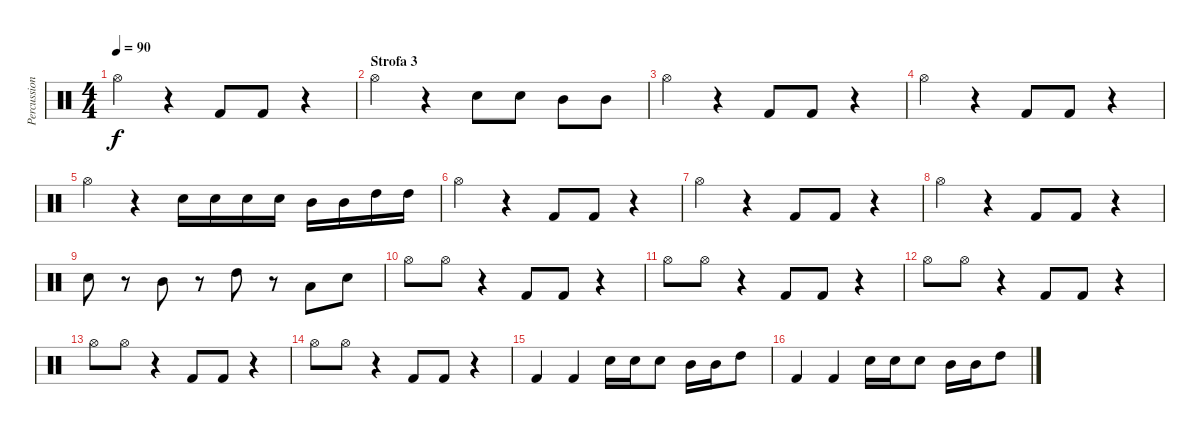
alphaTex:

\track ("Percussioni" "Percussion") {instrument percussion}
\staff {score}
\articulation defaults
\ts (4 4)
\tempo 90
\clef neutral
\ks c "Hi-Hat (open)".4{dy f}
r.4 "Kick (hit) 2".8 "Kick (hit) 2".8 r.4 |
\section ("" "Strofa 3")
"Hi-Hat (open)".4 r.4 "Electric Snare (hit)".8 "Electric Snare (hit)".8 "Mid Tom (hit)".8 "Mid Tom (hit)".8 |
"Hi-Hat (open)".4 r.4 "Kick (hit) 2".8 "Kick (hit) 2".8 r.4 |
"Hi-Hat (open)".4 r.4 "Kick (hit) 2".8 "Kick (hit) 2".8 r.4 |
"Hi-Hat (open)".4 r.4 "Electric Snare (hit)".16 "Electric Snare (hit)".16 "Electric Snare (hit)".16 "Electric Snare (hit)".16 "Mid Tom (hit)".16 "Mid Tom (hit)".16 "High Tom (hit)".16 "High Tom (hit)".16 |
"Hi-Hat (open)".4 r.4 "Kick (hit) 2".8 "Kick (hit) 2".8 r.4 |
"Hi-Hat (open)".4 r.4 "Kick (hit) 2".8 "Kick (hit) 2".8 r.4 |
"Hi-Hat (open)".4 r.4 "Kick (hit) 2".8 "Kick (hit) 2".8 r.4 |
"Electric Snare (hit)".8 r.8 "Mid Tom (hit)".8 r.8 "High Tom (hit)".8 r.8 "Low Floor Tom (hit)".8 "Electric Snare (hit)".8 |
"Hi-Hat (open)".8 "Hi-Hat (open)".8 r.4 "Kick (hit) 2".8 "Kick (hit) 2".8 r.4 |
"Hi-Hat (open)".8 "Hi-Hat (open)".8 r.4 "Kick (hit) 2".8 "Kick (hit) 2".8 r.4 |
"Hi-Hat (open)".8 "Hi-Hat (open)".8 r.4 "Kick (hit) 2".8 "Kick (hit) 2".8 r.4 |
"Hi-Hat (open)".8 "Hi-Hat (open)".8 r.4 "Kick (hit) 2".8 "Kick (hit) 2".8 r.4 |
"Hi-Hat (open)".8 "Hi-Hat (open)".8 r.4 "Kick (hit) 2".8 "Kick (hit) 2".8 r.4 |
"Kick (hit) 2".4 "Kick (hit) 2".4 "Electric Snare (hit)".16 "Electric Snare (hit)".16 "Electric Snare (hit)".8 "Mid Tom (hit)".16 "Mid Tom (hit)".16 "High Tom (hit)".8 |
"Kick (hit) 2".4 "Kick (hit) 2".4 "Electric Snare (hit)".16 "Electric Snare (hit)".16 "Electric Snare (hit)".8 "Mid Tom (hit)".16 "Mid Tom (hit)".16 "High Tom (hit)".8
